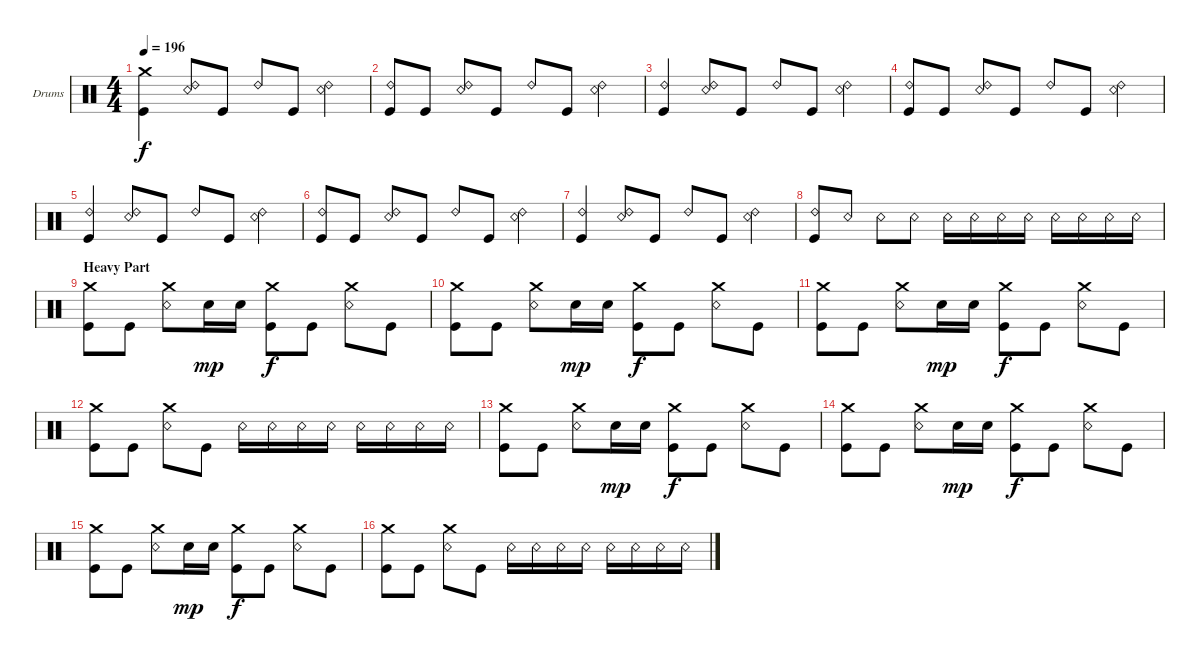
\defaultSystemsLayout 4
\bracketExtendMode groupsimilarinstruments
\firstSystemTrackNameOrientation horizontal
\otherSystemsTrackNameOrientation horizontal
\track ("Nao - Drums" "Drums") {instrument percussion}
\staff {score}
\articulation defaults
\ts (4 4)
\tempo 196
\clef neutral
\ks c
("Kick (hit)" "Crash medium (hit)").4{dy f} ("Snare (rim shot)" "Ride (bell) 2").8 "Kick (hit)".8 "Ride (bell) 2".8 "Kick (hit)".8 ("Snare (rim shot)" "Ride (bell) 2").4 |
("Kick (hit)" "Ride (bell) 2").8 "Kick (hit)".8 ("Snare (rim shot)" "Ride (bell) 2").8 "Kick (hit)".8 "Ride (bell) 2".8 "Kick (hit)".8 ("Snare (rim shot)" "Ride (bell) 2").4 |
("Kick (hit)" "Ride (bell) 2").4 ("Snare (rim shot)" "Ride (bell) 2").8 "Kick (hit)".8 "Ride (bell) 2".8 "Kick (hit)".8 ("Snare (rim shot)" "Ride (bell) 2").4 |
("Kick (hit)" "Ride (bell) 2").8 "Kick (hit)".8 ("Snare (rim shot)" "Ride (bell) 2").8 "Kick (hit)".8 "Ride (bell) 2".8 "Kick (hit)".8 ("Snare (rim shot)" "Ride (bell) 2").4 |
("Kick (hit)" "Ride (bell) 2").4 ("Snare (rim shot)" "Ride (bell) 2").8 "Kick (hit)".8 "Ride (bell) 2".8 "Kick (hit)".8 ("Snare (rim shot)" "Ride (bell) 2").4 |
("Kick (hit)" "Ride (bell) 2").8 "Kick (hit)".8 ("Snare (rim shot)" "Ride (bell) 2").8 "Kick (hit)".8 "Ride (bell) 2".8 "Kick (hit)".8 ("Snare (rim shot)" "Ride (bell) 2").4 |
("Kick (hit)" "Ride (bell) 2").4 ("Snare (rim shot)" "Ride (bell) 2").8 "Kick (hit)".8 "Ride (bell) 2".8 "Kick (hit)".8 ("Snare (rim shot)" "Ride (bell) 2").4 |
("Kick (hit)" "Ride (bell) 2").8 "Snare (rim shot)".8 "Snare (rim shot)".8 "Snare (rim shot)".8 "Snare (rim shot)".16 "Snare (rim shot)".16 "Snare (rim shot)".16 "Snare (rim shot)".16 "Snare (rim shot)".16 "Snare (rim shot)".16 "Snare (rim shot)".16 "Snare (rim shot)".16 |
\section ("" "Heavy Part")
("Crash medium (hit)" "Kick (hit)").8 "Kick (hit)".8 ("Snare (rim shot)" "Crash medium (hit)").8 "Snare (hit) 2".16{dy mp} "Snare (hit) 2".16 ("Kick (hit)" "Crash medium (hit)").8{dy f} "Kick (hit)".8 ("Snare (rim shot)" "Crash medium (hit)").8 "Kick (hit)".8 |
("Crash medium (hit)" "Kick (hit)").8 "Kick (hit)".8 ("Snare (rim shot)" "Crash medium (hit)").8 "Snare (hit) 2".16{dy mp} "Snare (hit) 2".16 ("Kick (hit)" "Crash medium (hit)").8{dy f} "Kick (hit)".8 ("Snare (rim shot)" "Crash medium (hit)").8 "Kick (hit)".8 |
("Crash medium (hit)" "Kick (hit)").8 "Kick (hit)".8 ("Snare (rim shot)" "Crash medium (hit)").8 "Snare (hit) 2".16{dy mp} "Snare (hit) 2".16 ("Kick (hit)" "Crash medium (hit)").8{dy f} "Kick (hit)".8 ("Snare (rim shot)" "Crash medium (hit)").8 "Kick (hit)".8 |
("Crash medium (hit)" "Kick (hit)").8 "Kick (hit)".8 ("Snare (rim shot)" "Crash medium (hit)").8 "Kick (hit)".8 "Snare (rim shot)".16 "Snare (rim shot)".16 "Snare (rim shot)".16 "Snare (rim shot)".16 "Snare (rim shot)".16 "Snare (rim shot)".16 "Snare (rim shot)".16 "Snare (rim shot)".16 |
("Crash medium (hit)" "Kick (hit)").8 "Kick (hit)".8 ("Snare (rim shot)" "Crash medium (hit)").8 "Snare (hit) 2".16{dy mp} "Snare (hit) 2".16 ("Kick (hit)" "Crash medium (hit)").8{dy f} "Kick (hit)".8 ("Snare (rim shot)" "Crash medium (hit)").8 "Kick (hit)".8 |
("Crash medium (hit)" "Kick (hit)").8 "Kick (hit)".8 ("Snare (rim shot)" "Crash medium (hit)").8 "Snare (hit) 2".16{dy mp} "Snare (hit) 2".16 ("Kick (hit)" "Crash medium (hit)").8{dy f} "Kick (hit)".8 ("Snare (rim shot)" "Crash medium (hit)").8 "Kick (hit)".8 |
("Crash medium (hit)" "Kick (hit)").8 "Kick (hit)".8 ("Snare (rim shot)" "Crash medium (hit)").8 "Snare (hit) 2".16{dy mp} "Snare (hit) 2".16 ("Kick (hit)" "Crash medium (hit)").8{dy f} "Kick (hit)".8 ("Snare (rim shot)" "Crash medium (hit)").8 "Kick (hit)".8 |
("Crash medium (hit)" "Kick (hit)").8 "Kick (hit)".8 ("Snare (rim shot)" "Crash medium (hit)").8 "Kick (hit)".8 "Snare (rim shot)".16 "Snare (rim shot)".16 "Snare (rim shot)".16 "Snare (rim shot)".16 "Snare (rim shot)".16 "Snare (rim shot)".16 "Snare (rim shot)".16 "Snare (rim shot)".16
